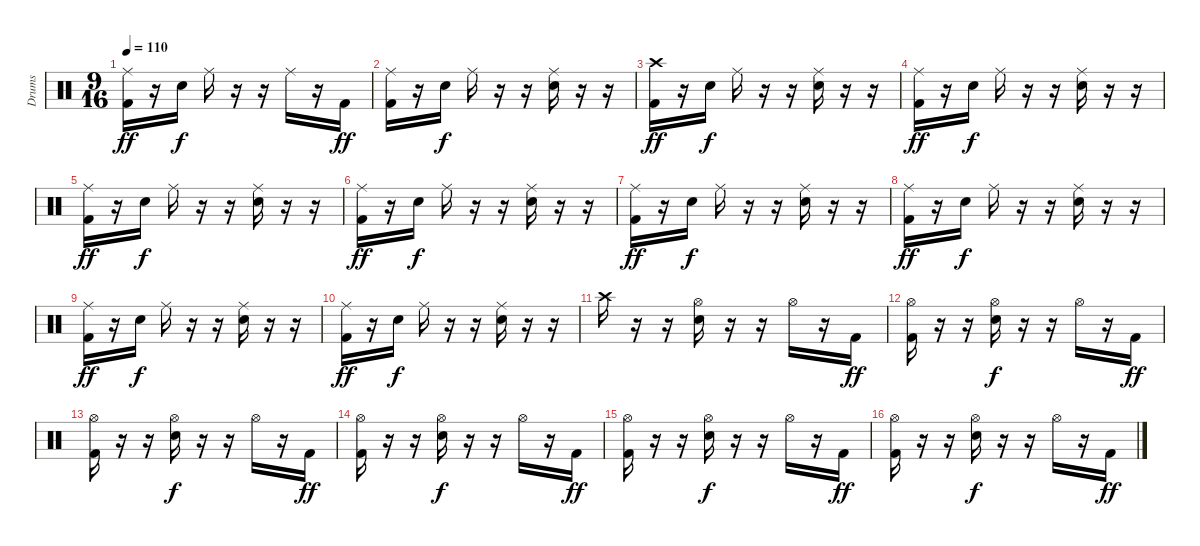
\track ("Drums" "Drums") {instrument percussion}
\staff {score}
\articulation defaults
\ts (9 16)
\tempo 110
\clef neutral
\ks c
("Ride (middle)" "Kick (hit) 2").16{dy ff} r.16 "Snare (hit) 2".16{dy f} "Ride (middle)".16 r.16 r.16 "Ride (middle)".16 r.16 "Kick (hit) 2".16{dy ff} |
("Ride (middle)" "Kick (hit) 2").16 r.16 "Snare (hit) 2".16{dy f} "Ride (middle)".16 r.16 r.16 ("Ride (middle)" "Snare (hit) 2").16 r.16 r.16 |
("Crash high (hit)" "Kick (hit) 2").16{dy ff} r.16 "Snare (hit) 2".16{dy f} "Ride (middle)".16 r.16 r.16 ("Ride (middle)" "Snare (hit) 2").16 r.16 r.16 |
("Ride (middle)" "Kick (hit) 2").16{dy ff} r.16 "Snare (hit) 2".16{dy f} "Ride (middle)".16 r.16 r.16 ("Ride (middle)" "Snare (hit) 2").16 r.16 r.16 |
("Ride (middle)" "Kick (hit) 2").16{dy ff} r.16 "Snare (hit) 2".16{dy f} "Ride (middle)".16 r.16 r.16 ("Ride (middle)" "Snare (hit) 2").16 r.16 r.16 |
("Ride (middle)" "Kick (hit) 2").16{dy ff} r.16 "Snare (hit) 2".16{dy f} "Ride (middle)".16 r.16 r.16 ("Ride (middle)" "Snare (hit) 2").16 r.16 r.16 |
("Ride (middle)" "Kick (hit) 2").16{dy ff} r.16 "Snare (hit) 2".16{dy f} "Ride (middle)".16 r.16 r.16 ("Ride (middle)" "Snare (hit) 2").16 r.16 r.16 |
("Ride (middle)" "Kick (hit) 2").16{dy ff} r.16 "Snare (hit) 2".16{dy f} "Ride (middle)".16 r.16 r.16 ("Ride (middle)" "Snare (hit) 2").16 r.16 r.16 |
("Ride (middle)" "Kick (hit) 2").16{dy ff} r.16 "Snare (hit) 2".16{dy f} "Ride (middle)".16 r.16 r.16 ("Ride (middle)" "Snare (hit) 2").16 r.16 r.16 |
("Ride (middle)" "Kick (hit) 2").16{dy ff} r.16 "Snare (hit) 2".16{dy f} "Ride (middle)".16 r.16 r.16 ("Ride (middle)" "Snare (hit) 2").16 r.16 r.16 |
"Crash high (hit)".16 r.16 r.16 ("Hi-Hat (open)" "Snare (hit) 2").16 r.16 r.16 "Hi-Hat (open)".16 r.16 "Kick (hit) 2".16{dy ff} |
("Hi-Hat (open)" "Kick (hit) 2").16 r.16 r.16 ("Hi-Hat (open)" "Snare (hit) 2").16{dy f} r.16 r.16 "Hi-Hat (open)".16 r.16 "Kick (hit) 2".16{dy ff} |
("Hi-Hat (open)" "Kick (hit) 2").16 r.16 r.16 ("Hi-Hat (open)" "Snare (hit) 2").16{dy f} r.16 r.16 "Hi-Hat (open)".16 r.16 "Kick (hit) 2".16{dy ff} |
("Hi-Hat (open)" "Kick (hit) 2").16 r.16 r.16 ("Hi-Hat (open)" "Snare (hit) 2").16{dy f} r.16 r.16 "Hi-Hat (open)".16 r.16 "Kick (hit) 2".16{dy ff} |
("Hi-Hat (open)" "Kick (hit) 2").16 r.16 r.16 ("Hi-Hat (open)" "Snare (hit) 2").16{dy f} r.16 r.16 "Hi-Hat (open)".16 r.16 "Kick (hit) 2".16{dy ff} |
("Hi-Hat (open)" "Kick (hit) 2").16 r.16 r.16 ("Hi-Hat (open)" "Snare (hit) 2").16{dy f} r.16 r.16 "Hi-Hat (open)".16 r.16 "Kick (hit) 2".16{dy ff}
